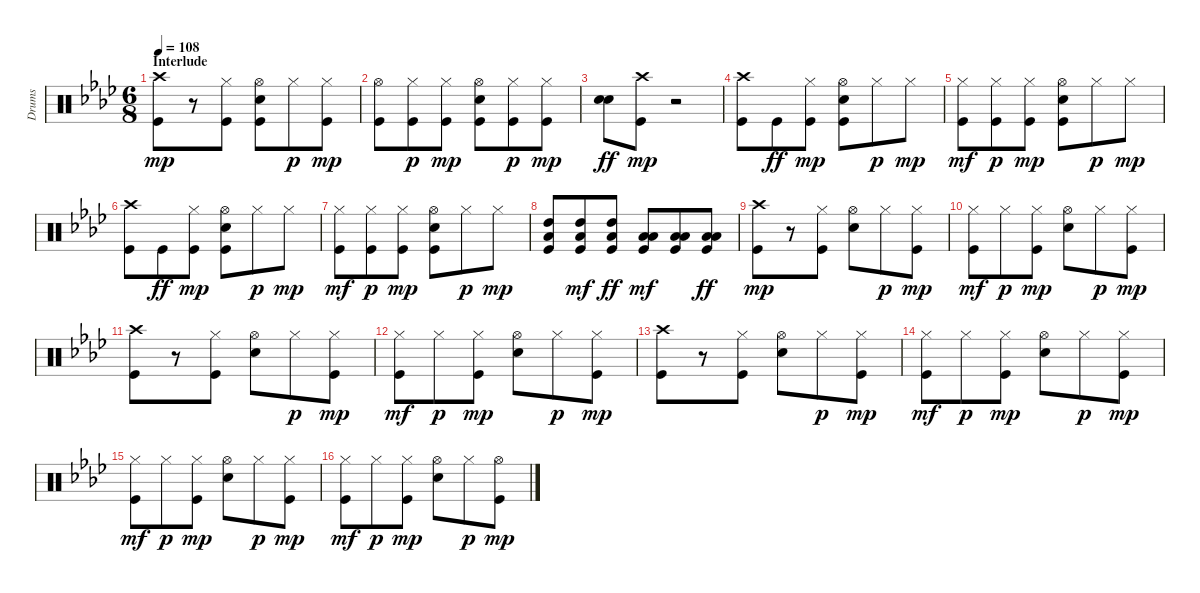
\track ("Drums" "Drums") {instrument percussion}
\staff {score}
\articulation defaults
\ts (6 8)
\section ("" "Interlude")
\tempo 108
\clef neutral
\ks ab
("Kick (hit)" "Crash high (hit)").8{dy mp} r.8 ("Kick (hit)" "Hi-Hat (closed)").8 ("Kick (hit)" "Electric Snare (hit)" "Hi-Hat (open)").8 "Hi-Hat (closed)".8{dy p} ("Kick (hit)" "Hi-Hat (closed)").8{dy mp} |
("Kick (hit)" "Hi-Hat (open)").8 ("Kick (hit)" "Hi-Hat (closed)").8{dy p} ("Kick (hit)" "Hi-Hat (closed)").8{dy mp} ("Kick (hit)" "Electric Snare (hit)" "Hi-Hat (open)").8 ("Kick (hit)" "Hi-Hat (closed)").8{dy p} ("Kick (hit)" "Hi-Hat (closed)").8{dy mp} |
("Electric Snare (hit)" "Electric Snare (hit)").8{dy ff} ("Kick (hit)" "Crash high (hit)").8{dy mp} r.2 |
("Kick (hit)" "Crash high (hit)").8 "Kick (hit)".8{dy ff} ("Kick (hit)" "Hi-Hat (closed)").8{dy mp} ("Kick (hit)" "Electric Snare (hit)" "Hi-Hat (open)").8 "Hi-Hat (closed)".8{dy p} "Hi-Hat (closed)".8{dy mp} |
("Kick (hit)" "Hi-Hat (closed)").8{dy mf} ("Kick (hit)" "Hi-Hat (closed)").8{dy p} ("Kick (hit)" "Hi-Hat (closed)").8{dy mp} ("Kick (hit)" "Electric Snare (hit)" "Hi-Hat (open)").8 "Hi-Hat (closed)".8{dy p} "Hi-Hat (closed)".8{dy mp} |
("Kick (hit)" "Crash high (hit)").8 "Kick (hit)".8{dy ff} ("Kick (hit)" "Hi-Hat (closed)").8{dy mp} ("Kick (hit)" "Electric Snare (hit)" "Hi-Hat (open)").8 "Hi-Hat (closed)".8{dy p} "Hi-Hat (closed)".8{dy mp} |
("Kick (hit)" "Hi-Hat (closed)").8{dy mf} ("Kick (hit)" "Hi-Hat (closed)").8{dy p} ("Kick (hit)" "Hi-Hat (closed)").8{dy mp} ("Kick (hit)" "Electric Snare (hit)" "Hi-Hat (open)").8 "Hi-Hat (closed)".8{dy p} "Hi-Hat (closed)".8{dy mp} |
("Kick (hit)" "Low Tom (hit)" "High Tom (hit)").8 ("Kick (hit)" "Low Tom (hit)" "High Tom (hit)").8{dy mf} ("Kick (hit)" "Low Tom (hit)" "High Tom (hit)").8{dy ff} ("Kick (hit)" "Low Floor Tom (hit)" "Low Tom (hit)").8{dy mf} ("Kick (hit)" "Low Floor Tom (hit)" "Low Tom (hit)").8 ("Kick (hit)" "Low Floor Tom (hit)" "Low Tom (hit)").8{dy ff} |
("Kick (hit)" "Crash high (hit)").8{dy mp} r.8 ("Kick (hit)" "Hi-Hat (closed)").8 ("Electric Snare (hit)" "Hi-Hat (open)").8 "Hi-Hat (closed)".8{dy p} ("Kick (hit)" "Hi-Hat (closed)").8{dy mp} |
("Kick (hit)" "Hi-Hat (closed)").8{dy mf} "Hi-Hat (closed)".8{dy p} ("Kick (hit)" "Hi-Hat (closed)").8{dy mp} ("Electric Snare (hit)" "Hi-Hat (open)").8 "Hi-Hat (closed)".8{dy p} ("Kick (hit)" "Hi-Hat (closed)").8{dy mp} |
("Kick (hit)" "Crash high (hit)").8 r.8 ("Kick (hit)" "Hi-Hat (closed)").8 ("Electric Snare (hit)" "Hi-Hat (open)").8 "Hi-Hat (closed)".8{dy p} ("Kick (hit)" "Hi-Hat (closed)").8{dy mp} |
("Kick (hit)" "Hi-Hat (closed)").8{dy mf} "Hi-Hat (closed)".8{dy p} ("Kick (hit)" "Hi-Hat (closed)").8{dy mp} ("Electric Snare (hit)" "Hi-Hat (open)").8 "Hi-Hat (closed)".8{dy p} ("Kick (hit)" "Hi-Hat (closed)").8{dy mp} |
("Kick (hit)" "Crash high (hit)").8 r.8 ("Kick (hit)" "Hi-Hat (closed)").8 ("Electric Snare (hit)" "Hi-Hat (open)").8 "Hi-Hat (closed)".8{dy p} ("Kick (hit)" "Hi-Hat (closed)").8{dy mp} |
("Kick (hit)" "Hi-Hat (closed)").8{dy mf} "Hi-Hat (closed)".8{dy p} ("Kick (hit)" "Hi-Hat (closed)").8{dy mp} ("Electric Snare (hit)" "Hi-Hat (open)").8 "Hi-Hat (closed)".8{dy p} ("Kick (hit)" "Hi-Hat (closed)").8{dy mp} |
("Kick (hit)" "Hi-Hat (closed)").8{dy mf} "Hi-Hat (closed)".8{dy p} ("Kick (hit)" "Hi-Hat (closed)").8{dy mp} ("Electric Snare (hit)" "Hi-Hat (open)").8 "Hi-Hat (closed)".8{dy p} ("Kick (hit)" "Hi-Hat (closed)").8{dy mp} |
("Kick (hit)" "Hi-Hat (closed)").8{dy mf} "Hi-Hat (closed)".8{dy p} ("Kick (hit)" "Hi-Hat (closed)").8{dy mp} ("Electric Snare (hit)" "Hi-Hat (open)").8 "Hi-Hat (closed)".8{dy p} ("Kick (hit)" "Hi-Hat (open)").8{dy mp}
